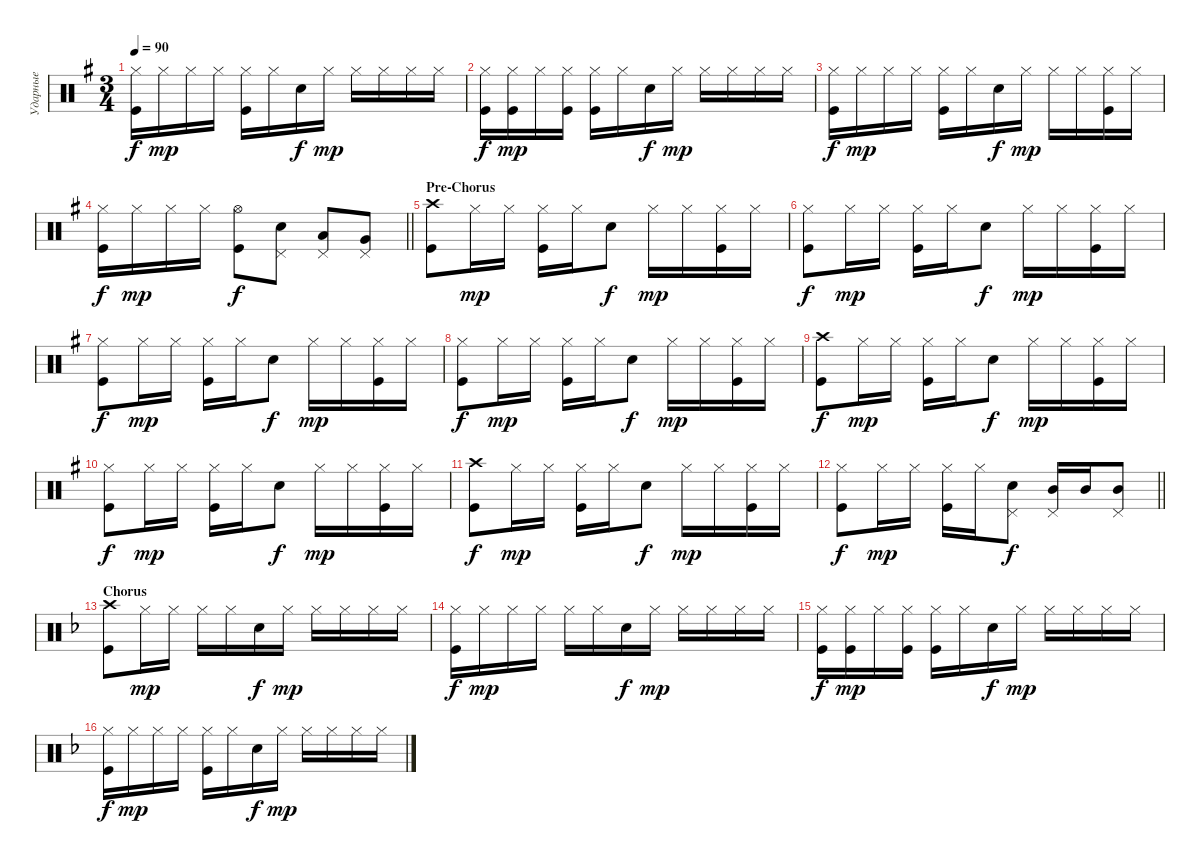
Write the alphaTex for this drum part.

\track ("Ударные" "Ударные") {instrument percussion}
\staff {score}
\articulation defaults
\ts (3 4)
\tempo 90
\clef neutral
\ks eminor
("Hi-Hat (closed)" "Kick (hit)").16{dy f} "Hi-Hat (closed)".16{dy mp} "Hi-Hat (closed)".16 "Hi-Hat (closed)".16 ("Hi-Hat (closed)" "Kick (hit)").16 "Hi-Hat (closed)".16 "Snare (hit) 2".16{dy f} "Hi-Hat (closed)".16{dy mp} "Hi-Hat (closed)".16 "Hi-Hat (closed)".16 "Hi-Hat (closed)".16 "Hi-Hat (closed)".16 |
("Hi-Hat (closed)" "Kick (hit)").16{dy f} ("Hi-Hat (closed)" "Kick (hit)").16{dy mp} "Hi-Hat (closed)".16 ("Hi-Hat (closed)" "Kick (hit)").16 ("Hi-Hat (closed)" "Kick (hit)").16 "Hi-Hat (closed)".16 "Snare (hit) 2".16{dy f} "Hi-Hat (closed)".16{dy mp} "Hi-Hat (closed)".16 "Hi-Hat (closed)".16 "Hi-Hat (closed)".16 "Hi-Hat (closed)".16 |
("Hi-Hat (closed)" "Kick (hit)").16{dy f} "Hi-Hat (closed)".16{dy mp} "Hi-Hat (closed)".16 "Hi-Hat (closed)".16 ("Hi-Hat (closed)" "Kick (hit)").16 "Hi-Hat (closed)".16 "Snare (hit) 2".16{dy f} "Hi-Hat (closed)".16{dy mp} "Hi-Hat (closed)".16 "Hi-Hat (closed)".16 ("Hi-Hat (closed)" "Kick (hit)").16 "Hi-Hat (closed)".16 |
\barLineRight lightlight
("Hi-Hat (closed)" "Kick (hit)").16{dy f} "Hi-Hat (closed)".16{dy mp} "Hi-Hat (closed)".16 "Hi-Hat (closed)".16 ("Hi-Hat (open)" "Kick (hit)").8{dy f} ("Snare (hit) 2" "Pedal Hi-Hat (hit)").8 ("Pedal Hi-Hat (hit)" "Low Tom (hit)").8{bd 60} ("Pedal Hi-Hat (hit)" "Very Low Tom (hit)").8{bd 60} |
\section ("" "Pre-Chorus")
("Crash high (hit)" "Kick (hit)").8 "Hi-Hat (closed)".16{dy mp} "Hi-Hat (closed)".16 ("Hi-Hat (closed)" "Kick (hit)").16 "Hi-Hat (closed)".16 "Snare (hit) 2".8{dy f} "Hi-Hat (closed)".16{dy mp} "Hi-Hat (closed)".16 ("Hi-Hat (closed)" "Kick (hit)").16 "Hi-Hat (closed)".16 |
("Hi-Hat (closed)" "Kick (hit)").8{dy f} "Hi-Hat (closed)".16{dy mp} "Hi-Hat (closed)".16 ("Hi-Hat (closed)" "Kick (hit)").16 "Hi-Hat (closed)".16 "Snare (hit) 2".8{dy f} "Hi-Hat (closed)".16{dy mp} "Hi-Hat (closed)".16 ("Hi-Hat (closed)" "Kick (hit)").16 "Hi-Hat (closed)".16 |
("Hi-Hat (closed)" "Kick (hit)").8{dy f} "Hi-Hat (closed)".16{dy mp} "Hi-Hat (closed)".16 ("Hi-Hat (closed)" "Kick (hit)").16 "Hi-Hat (closed)".16 "Snare (hit) 2".8{dy f} "Hi-Hat (closed)".16{dy mp} "Hi-Hat (closed)".16 ("Hi-Hat (closed)" "Kick (hit)").16 "Hi-Hat (closed)".16 |
("Hi-Hat (closed)" "Kick (hit)").8{dy f} "Hi-Hat (closed)".16{dy mp} "Hi-Hat (closed)".16 ("Hi-Hat (closed)" "Kick (hit)").16 "Hi-Hat (closed)".16 "Snare (hit) 2".8{dy f} "Hi-Hat (closed)".16{dy mp} "Hi-Hat (closed)".16 ("Hi-Hat (closed)" "Kick (hit)").16 "Hi-Hat (closed)".16 |
("Crash high (hit)" "Kick (hit)").8{dy f} "Hi-Hat (closed)".16{dy mp} "Hi-Hat (closed)".16 ("Hi-Hat (closed)" "Kick (hit)").16 "Hi-Hat (closed)".16 "Snare (hit) 2".8{dy f} "Hi-Hat (closed)".16{dy mp} "Hi-Hat (closed)".16 ("Hi-Hat (closed)" "Kick (hit)").16 "Hi-Hat (closed)".16 |
("Hi-Hat (closed)" "Kick (hit)").8{dy f} "Hi-Hat (closed)".16{dy mp} "Hi-Hat (closed)".16 ("Hi-Hat (closed)" "Kick (hit)").16 "Hi-Hat (closed)".16 "Snare (hit) 2".8{dy f} "Hi-Hat (closed)".16{dy mp} "Hi-Hat (closed)".16 ("Hi-Hat (closed)" "Kick (hit)").16 "Hi-Hat (closed)".16 |
("Crash high (hit)" "Kick (hit)").8{dy f} "Hi-Hat (closed)".16{dy mp} "Hi-Hat (closed)".16 ("Hi-Hat (closed)" "Kick (hit)").16 "Hi-Hat (closed)".16 "Snare (hit) 2".8{dy f} "Hi-Hat (closed)".16{dy mp} "Hi-Hat (closed)".16 ("Hi-Hat (closed)" "Kick (hit)").16 "Hi-Hat (closed)".16 |
\barLineRight lightlight
("Hi-Hat (closed)" "Kick (hit)").8{dy f} "Hi-Hat (closed)".16{dy mp} "Hi-Hat (closed)".16 ("Hi-Hat (closed)" "Kick (hit)").16 "Hi-Hat (closed)".16 ("Pedal Hi-Hat (hit)" "Snare (hit) 2").8{dy f} ("Mid Tom (hit)" "Pedal Hi-Hat (hit)").16 "Mid Tom (hit)".16 ("Mid Tom (hit)" "Pedal Hi-Hat (hit)").8 |
\section ("" "Chorus")
\ks dminor
("Crash high (hit)" "Kick (hit)").8 "Hi-Hat (closed)".16{dy mp} "Hi-Hat (closed)".16 "Hi-Hat (closed)".16 "Hi-Hat (closed)".16 "Snare (hit) 2".16{dy f} "Hi-Hat (closed)".16{dy mp} "Hi-Hat (closed)".16 "Hi-Hat (closed)".16 "Hi-Hat (closed)".16 "Hi-Hat (closed)".16 |
("Hi-Hat (closed)" "Kick (hit)").16{dy f} "Hi-Hat (closed)".16{dy mp} "Hi-Hat (closed)".16 "Hi-Hat (closed)".16 "Hi-Hat (closed)".16 "Hi-Hat (closed)".16 "Snare (hit) 2".16{dy f} "Hi-Hat (closed)".16{dy mp} "Hi-Hat (closed)".16 "Hi-Hat (closed)".16 "Hi-Hat (closed)".16 "Hi-Hat (closed)".16 |
("Hi-Hat (closed)" "Kick (hit)").16{dy f} ("Hi-Hat (closed)" "Kick (hit)").16{dy mp} "Hi-Hat (closed)".16 ("Hi-Hat (closed)" "Kick (hit)").16 ("Hi-Hat (closed)" "Kick (hit)").16 "Hi-Hat (closed)".16 "Snare (hit) 2".16{dy f} "Hi-Hat (closed)".16{dy mp} "Hi-Hat (closed)".16 "Hi-Hat (closed)".16 "Hi-Hat (closed)".16 "Hi-Hat (closed)".16 |
("Hi-Hat (closed)" "Kick (hit)").16{dy f} "Hi-Hat (closed)".16{dy mp} "Hi-Hat (closed)".16 "Hi-Hat (closed)".16 ("Hi-Hat (closed)" "Kick (hit)").16 "Hi-Hat (closed)".16 "Snare (hit) 2".16{dy f} "Hi-Hat (closed)".16{dy mp} "Hi-Hat (closed)".16 "Hi-Hat (closed)".16 "Hi-Hat (closed)".16 "Hi-Hat (closed)".16
